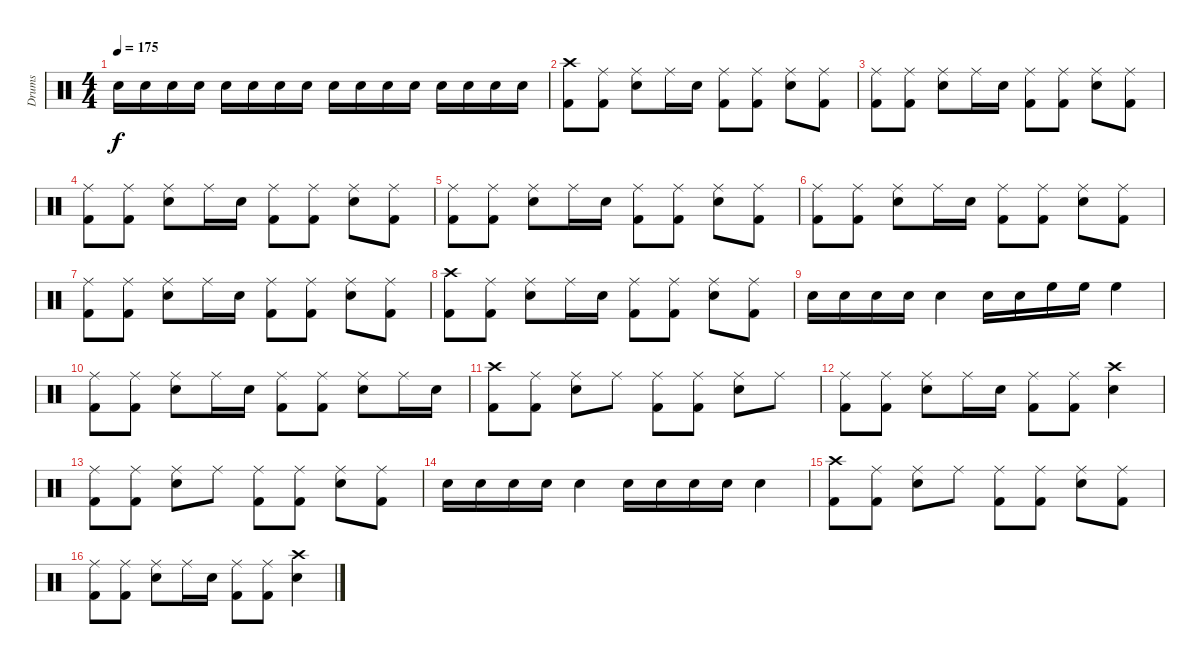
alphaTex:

\track ("Drums" "Drums") {instrument percussion}
\staff {score}
\articulation defaults
\ts (4 4)
\tempo 175
\clef neutral
\ks c "Snare (hit) 2".16{dy f} "Snare (hit) 2".16 "Snare (hit) 2".16 "Snare (hit) 2".16 "Snare (hit) 2".16 "Snare (hit) 2".16 "Snare (hit) 2".16 "Snare (hit) 2".16 "Snare (hit) 2".16 "Snare (hit) 2".16 "Snare (hit) 2".16 "Snare (hit) 2".16 "Snare (hit) 2".16 "Snare (hit) 2".16 "Snare (hit) 2".16 "Snare (hit) 2".16
|
("Crash high (hit)" "Kick (hit) 2").8 ("Ride (middle)" "Kick (hit) 2").8 ("Ride (middle)" "Snare (hit) 2").8 "Ride (middle)".16 "Snare (hit) 2".16 ("Ride (middle)" "Kick (hit) 2").8 ("Ride (middle)" "Kick (hit) 2").8 ("Ride (middle)" "Snare (hit) 2").8 ("Ride (middle)" "Kick (hit) 2").8 |
("Ride (middle)" "Kick (hit) 2").8 ("Ride (middle)" "Kick (hit) 2").8 ("Ride (middle)" "Snare (hit) 2").8 "Ride (middle)".16 "Snare (hit) 2".16 ("Ride (middle)" "Kick (hit) 2").8 ("Ride (middle)" "Kick (hit) 2").8 ("Ride (middle)" "Snare (hit) 2").8 ("Ride (middle)" "Kick (hit) 2").8 |
("Ride (middle)" "Kick (hit) 2").8 ("Ride (middle)" "Kick (hit) 2").8 ("Ride (middle)" "Snare (hit) 2").8 "Ride (middle)".16 "Snare (hit) 2".16 ("Ride (middle)" "Kick (hit) 2").8 ("Ride (middle)" "Kick (hit) 2").8 ("Ride (middle)" "Snare (hit) 2").8 ("Ride (middle)" "Kick (hit) 2").8 |
("Ride (middle)" "Kick (hit) 2").8 ("Ride (middle)" "Kick (hit) 2").8 ("Ride (middle)" "Snare (hit) 2").8 "Ride (middle)".16 "Snare (hit) 2".16 ("Ride (middle)" "Kick (hit) 2").8 ("Ride (middle)" "Kick (hit) 2").8 ("Ride (middle)" "Snare (hit) 2").8 ("Ride (middle)" "Kick (hit) 2").8 |
("Ride (middle)" "Kick (hit) 2").8 ("Ride (middle)" "Kick (hit) 2").8 ("Ride (middle)" "Snare (hit) 2").8 "Ride (middle)".16 "Snare (hit) 2".16 ("Ride (middle)" "Kick (hit) 2").8 ("Ride (middle)" "Kick (hit) 2").8 ("Ride (middle)" "Snare (hit) 2").8 ("Ride (middle)" "Kick (hit) 2").8 |
("Ride (middle)" "Kick (hit) 2").8 ("Ride (middle)" "Kick (hit) 2").8 ("Ride (middle)" "Snare (hit) 2").8 "Ride (middle)".16 "Snare (hit) 2".16 ("Ride (middle)" "Kick (hit) 2").8 ("Ride (middle)" "Kick (hit) 2").8 ("Ride (middle)" "Snare (hit) 2").8 ("Ride (middle)" "Kick (hit) 2").8 |
("Crash high (hit)" "Kick (hit) 2").8 ("Ride (middle)" "Kick (hit) 2").8 ("Ride (middle)" "Snare (hit) 2").8 "Ride (middle)".16 "Snare (hit) 2".16 ("Ride (middle)" "Kick (hit) 2").8 ("Ride (middle)" "Kick (hit) 2").8 ("Ride (middle)" "Snare (hit) 2").8 ("Ride (middle)" "Kick (hit) 2").8 |
"Snare (hit) 2".16 "Snare (hit) 2".16 "Snare (hit) 2".16 "Snare (hit) 2".16 "Snare (hit) 2".4 "Snare (hit) 2".16 "Snare (hit) 2".16 "High Floor Tom (hit)".16 "High Floor Tom (hit)".16 "High Floor Tom (hit)".4 |
("Ride (middle)" "Kick (hit) 2").8 ("Ride (middle)" "Kick (hit) 2").8 ("Ride (middle)" "Snare (hit) 2").8 "Ride (middle)".16 "Snare (hit) 2".16 ("Ride (middle)" "Kick (hit) 2").8 ("Ride (middle)" "Kick (hit) 2").8 ("Ride (middle)" "Snare (hit) 2").8 "Ride (middle)".16 "Snare (hit) 2".16 |
("Crash high (hit)" "Kick (hit) 2").8 ("Ride (middle)" "Kick (hit) 2").8 ("Ride (middle)" "Snare (hit) 2").8 "Ride (middle)".8 ("Ride (middle)" "Kick (hit) 2").8 ("Ride (middle)" "Kick (hit) 2").8 ("Ride (middle)" "Snare (hit) 2").8 "Ride (middle)".8 |
("Ride (middle)" "Kick (hit) 2").8 ("Ride (middle)" "Kick (hit) 2").8 ("Ride (middle)" "Snare (hit) 2").8 "Ride (middle)".16 "Snare (hit) 2".16 ("Ride (middle)" "Kick (hit) 2").8 ("Ride (middle)" "Kick (hit) 2").8 ("Crash high (hit)" "Snare (hit) 2").4 |
("Ride (middle)" "Kick (hit) 2").8 ("Ride (middle)" "Kick (hit) 2").8 ("Ride (middle)" "Snare (hit) 2").8 "Ride (middle)".8 ("Ride (middle)" "Kick (hit) 2").8 ("Ride (middle)" "Kick (hit) 2").8 ("Ride (middle)" "Snare (hit) 2").8 ("Ride (middle)" "Kick (hit) 2").8 |
"Snare (hit) 2".16 "Snare (hit) 2".16 "Snare (hit) 2".16 "Snare (hit) 2".16 "Snare (hit) 2".4 "Snare (hit) 2".16 "Snare (hit) 2".16 "Snare (hit) 2".16 "Snare (hit) 2".16 "Snare (hit) 2".4 |
("Crash high (hit)" "Kick (hit) 2").8 ("Ride (middle)" "Kick (hit) 2").8 ("Ride (middle)" "Snare (hit) 2").8 "Ride (middle)".8 ("Ride (middle)" "Kick (hit) 2").8 ("Ride (middle)" "Kick (hit) 2").8 ("Ride (middle)" "Snare (hit) 2").8 ("Ride (middle)" "Kick (hit) 2").8 |
("Ride (middle)" "Kick (hit) 2").8 ("Ride (middle)" "Kick (hit) 2").8 ("Ride (middle)" "Snare (hit) 2").8 "Ride (middle)".16 "Snare (hit) 2".16 ("Ride (middle)" "Kick (hit) 2").8 ("Ride (middle)" "Kick (hit) 2").8 ("Crash high (hit)" "Snare (hit) 2").4
